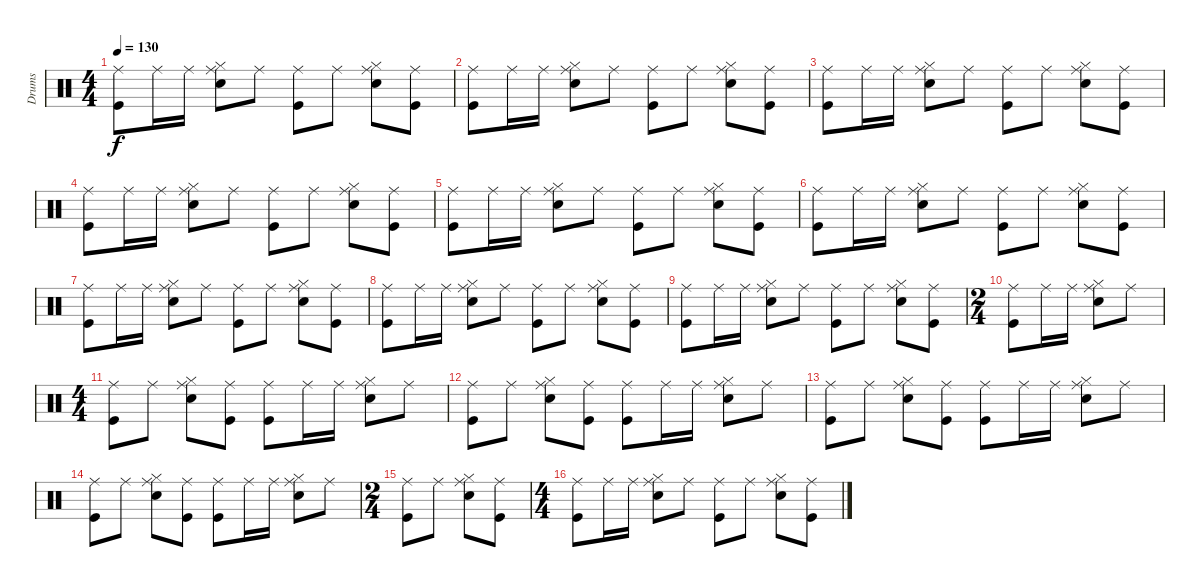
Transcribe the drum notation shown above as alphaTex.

\track ("Drums" "Drums") {instrument percussion}
\staff {score}
\articulation defaults
\ts (4 4)
\tempo 130
\clef neutral
\ks c
("Kick (hit)" "Ride (middle)").8{dy f} "Ride (middle)".16 "Ride (middle)".16 ("Snare (hit) 2" "Hi-Hat (closed)" "Ride (middle)").8 "Ride (middle)".8 ("Kick (hit)" "Ride (middle)").8 "Ride (middle)".8 ("Snare (hit) 2" "Hi-Hat (closed)" "Ride (middle)").8 ("Kick (hit)" "Ride (middle)").8 |
("Kick (hit)" "Ride (middle)").8 "Ride (middle)".16 "Ride (middle)".16 ("Snare (hit) 2" "Hi-Hat (closed)" "Ride (middle)").8 "Ride (middle)".8 ("Kick (hit)" "Ride (middle)").8 "Ride (middle)".8 ("Snare (hit) 2" "Hi-Hat (closed)" "Ride (middle)").8 ("Kick (hit)" "Ride (middle)").8 |
("Kick (hit)" "Ride (middle)").8 "Ride (middle)".16 "Ride (middle)".16 ("Snare (hit) 2" "Hi-Hat (closed)" "Ride (middle)").8 "Ride (middle)".8 ("Kick (hit)" "Ride (middle)").8 "Ride (middle)".8 ("Snare (hit) 2" "Hi-Hat (closed)" "Ride (middle)").8 ("Kick (hit)" "Ride (middle)").8 |
("Kick (hit)" "Ride (middle)").8 "Ride (middle)".16 "Ride (middle)".16 ("Snare (hit) 2" "Hi-Hat (closed)" "Ride (middle)").8 "Ride (middle)".8 ("Kick (hit)" "Ride (middle)").8 "Ride (middle)".8 ("Snare (hit) 2" "Hi-Hat (closed)" "Ride (middle)").8 ("Kick (hit)" "Ride (middle)").8 |
("Kick (hit)" "Ride (middle)").8 "Ride (middle)".16 "Ride (middle)".16 ("Snare (hit) 2" "Hi-Hat (closed)" "Ride (middle)").8 "Ride (middle)".8 ("Kick (hit)" "Ride (middle)").8 "Ride (middle)".8 ("Snare (hit) 2" "Hi-Hat (closed)" "Ride (middle)").8 ("Kick (hit)" "Ride (middle)").8 |
("Kick (hit)" "Ride (middle)").8 "Ride (middle)".16 "Ride (middle)".16 ("Snare (hit) 2" "Hi-Hat (closed)" "Ride (middle)").8 "Ride (middle)".8 ("Kick (hit)" "Ride (middle)").8 "Ride (middle)".8 ("Snare (hit) 2" "Hi-Hat (closed)" "Ride (middle)").8 ("Kick (hit)" "Ride (middle)").8 |
("Kick (hit)" "Ride (middle)").8 "Ride (middle)".16 "Ride (middle)".16 ("Snare (hit) 2" "Hi-Hat (closed)" "Ride (middle)").8 "Ride (middle)".8 ("Kick (hit)" "Ride (middle)").8 "Ride (middle)".8 ("Snare (hit) 2" "Hi-Hat (closed)" "Ride (middle)").8 ("Kick (hit)" "Ride (middle)").8 |
("Kick (hit)" "Ride (middle)").8 "Ride (middle)".16 "Ride (middle)".16 ("Snare (hit) 2" "Hi-Hat (closed)" "Ride (middle)").8 "Ride (middle)".8 ("Kick (hit)" "Ride (middle)").8 "Ride (middle)".8 ("Snare (hit) 2" "Hi-Hat (closed)" "Ride (middle)").8 ("Kick (hit)" "Ride (middle)").8 |
("Kick (hit)" "Ride (middle)").8 "Ride (middle)".16 "Ride (middle)".16 ("Snare (hit) 2" "Hi-Hat (closed)" "Ride (middle)").8 "Ride (middle)".8 ("Kick (hit)" "Ride (middle)").8 "Ride (middle)".8 ("Snare (hit) 2" "Hi-Hat (closed)" "Ride (middle)").8 ("Kick (hit)" "Ride (middle)").8 |
\ts (2 4)
("Kick (hit)" "Ride (middle)").8 "Ride (middle)".16 "Ride (middle)".16 ("Snare (hit) 2" "Hi-Hat (closed)" "Ride (middle)").8 "Ride (middle)".8 |
\ts (4 4)
("Kick (hit)" "Ride (middle)").8 "Ride (middle)".8 ("Snare (hit) 2" "Hi-Hat (closed)" "Ride (middle)").8 ("Kick (hit)" "Ride (middle)").8 ("Kick (hit)" "Ride (middle)").8 "Ride (middle)".16 "Ride (middle)".16 ("Snare (hit) 2" "Hi-Hat (closed)" "Ride (middle)").8 "Ride (middle)".8 |
("Kick (hit)" "Ride (middle)").8 "Ride (middle)".8 ("Snare (hit) 2" "Hi-Hat (closed)" "Ride (middle)").8 ("Kick (hit)" "Ride (middle)").8 ("Kick (hit)" "Ride (middle)").8 "Ride (middle)".16 "Ride (middle)".16 ("Snare (hit) 2" "Hi-Hat (closed)" "Ride (middle)").8 "Ride (middle)".8 |
("Kick (hit)" "Ride (middle)").8 "Ride (middle)".8 ("Snare (hit) 2" "Hi-Hat (closed)" "Ride (middle)").8 ("Kick (hit)" "Ride (middle)").8 ("Kick (hit)" "Ride (middle)").8 "Ride (middle)".16 "Ride (middle)".16 ("Snare (hit) 2" "Hi-Hat (closed)" "Ride (middle)").8 "Ride (middle)".8 |
("Kick (hit)" "Ride (middle)").8 "Ride (middle)".8 ("Snare (hit) 2" "Hi-Hat (closed)" "Ride (middle)").8 ("Kick (hit)" "Ride (middle)").8 ("Kick (hit)" "Ride (middle)").8 "Ride (middle)".16 "Ride (middle)".16 ("Snare (hit) 2" "Hi-Hat (closed)" "Ride (middle)").8 "Ride (middle)".8 |
\ts (2 4)
("Kick (hit)" "Ride (middle)").8 "Ride (middle)".8 ("Snare (hit) 2" "Hi-Hat (closed)" "Ride (middle)").8 ("Kick (hit)" "Ride (middle)").8 |
\ts (4 4)
("Kick (hit)" "Ride (middle)").8 "Ride (middle)".16 "Ride (middle)".16 ("Snare (hit) 2" "Hi-Hat (closed)" "Ride (middle)").8 "Ride (middle)".8 ("Kick (hit)" "Ride (middle)").8 "Ride (middle)".8 ("Snare (hit) 2" "Hi-Hat (closed)" "Ride (middle)").8 ("Kick (hit)" "Ride (middle)").8
